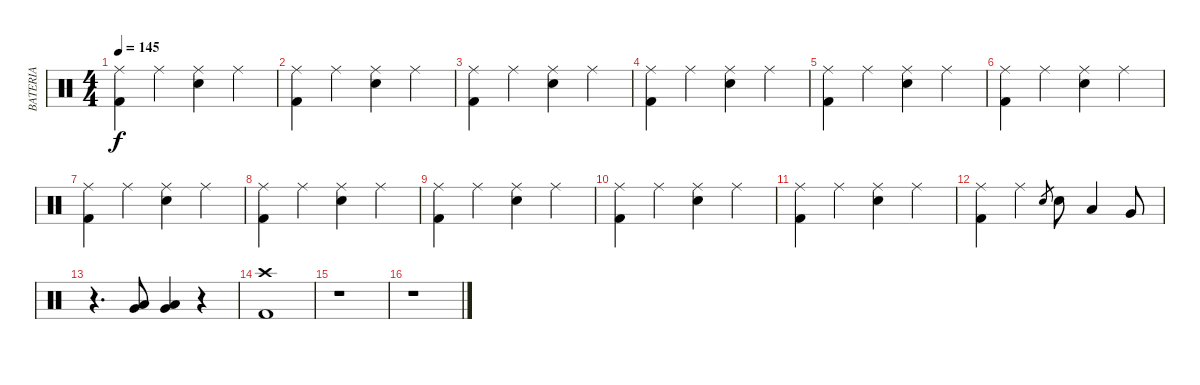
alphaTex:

\track ("BATERIA" "BATERIA") {instrument percussion}
\staff {score}
\articulation defaults
\ts (4 4)
\tempo 145
\clef neutral
\ks c
("Ride (middle)" "Kick (hit) 2").4{dy f} "Ride (middle)".4 ("Ride (middle)" "Snare (hit) 2").4 "Ride (middle)".4 |
("Ride (middle)" "Kick (hit) 2").4 "Ride (middle)".4 ("Ride (middle)" "Snare (hit) 2").4 "Ride (middle)".4 |
("Ride (middle)" "Kick (hit) 2").4 "Ride (middle)".4 ("Ride (middle)" "Snare (hit) 2").4 "Ride (middle)".4 |
("Ride (middle)" "Kick (hit) 2").4 "Ride (middle)".4 ("Ride (middle)" "Snare (hit) 2").4 "Ride (middle)".4 |
("Ride (middle)" "Kick (hit) 2").4 "Ride (middle)".4 ("Ride (middle)" "Snare (hit) 2").4 "Ride (middle)".4 |
("Ride (middle)" "Kick (hit) 2").4 "Ride (middle)".4 ("Ride (middle)" "Snare (hit) 2").4 "Ride (middle)".4 |
("Ride (middle)" "Kick (hit) 2").4 "Ride (middle)".4 ("Ride (middle)" "Snare (hit) 2").4 "Ride (middle)".4 |
("Ride (middle)" "Kick (hit) 2").4 "Ride (middle)".4 ("Ride (middle)" "Snare (hit) 2").4 "Ride (middle)".4 |
("Ride (middle)" "Kick (hit) 2").4 "Ride (middle)".4 ("Ride (middle)" "Snare (hit) 2").4 "Ride (middle)".4 |
("Ride (middle)" "Kick (hit) 2").4 "Ride (middle)".4 ("Ride (middle)" "Snare (hit) 2").4 "Ride (middle)".4 |
("Ride (middle)" "Kick (hit) 2").4 "Ride (middle)".4 ("Ride (middle)" "Snare (hit) 2").4 "Ride (middle)".4 |
("Ride (middle)" "Kick (hit) 2").4 "Ride (middle)".4 "Snare (hit) 2".8{gr} "Snare (hit) 2".8 "Low Tom (hit)".4 "Very Low Tom (hit)".8 |
r.4{d} ("Very Low Tom (hit)" "Low Floor Tom (hit)").8 ("Very Low Tom (hit)" "Low Floor Tom (hit)").4 r.4 |
("Crash high (hit)" "Kick (hit) 2").1 |
r.1 |
r.1
